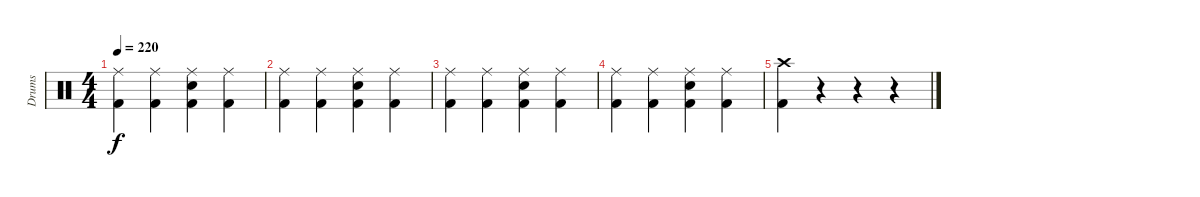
\track ("Drums" "Drums") {instrument percussion}
\staff {score}
\articulation defaults
\ts (4 4)
\tempo 220
\clef neutral
\ks c
("Ride (middle)" "Kick (hit) 2").4{dy f} ("Ride (middle)" "Kick (hit) 2").4 ("Ride (middle)" "Snare (hit) 2" "Kick (hit) 2").4 ("Ride (middle)" "Kick (hit) 2").4 |
("Ride (middle)" "Kick (hit) 2").4 ("Ride (middle)" "Kick (hit) 2").4 ("Ride (middle)" "Snare (hit) 2" "Kick (hit) 2").4 ("Ride (middle)" "Kick (hit) 2").4 |
("Ride (middle)" "Kick (hit) 2").4 ("Ride (middle)" "Kick (hit) 2").4 ("Ride (middle)" "Snare (hit) 2" "Kick (hit) 2").4 ("Ride (middle)" "Kick (hit) 2").4 |
("Ride (middle)" "Kick (hit) 2").4 ("Ride (middle)" "Kick (hit) 2").4 ("Ride (middle)" "Snare (hit) 2" "Kick (hit) 2").4 ("Ride (middle)" "Kick (hit) 2").4 |
("Crash high (hit)" "Kick (hit) 2").4 r.4 r.4 r.4
